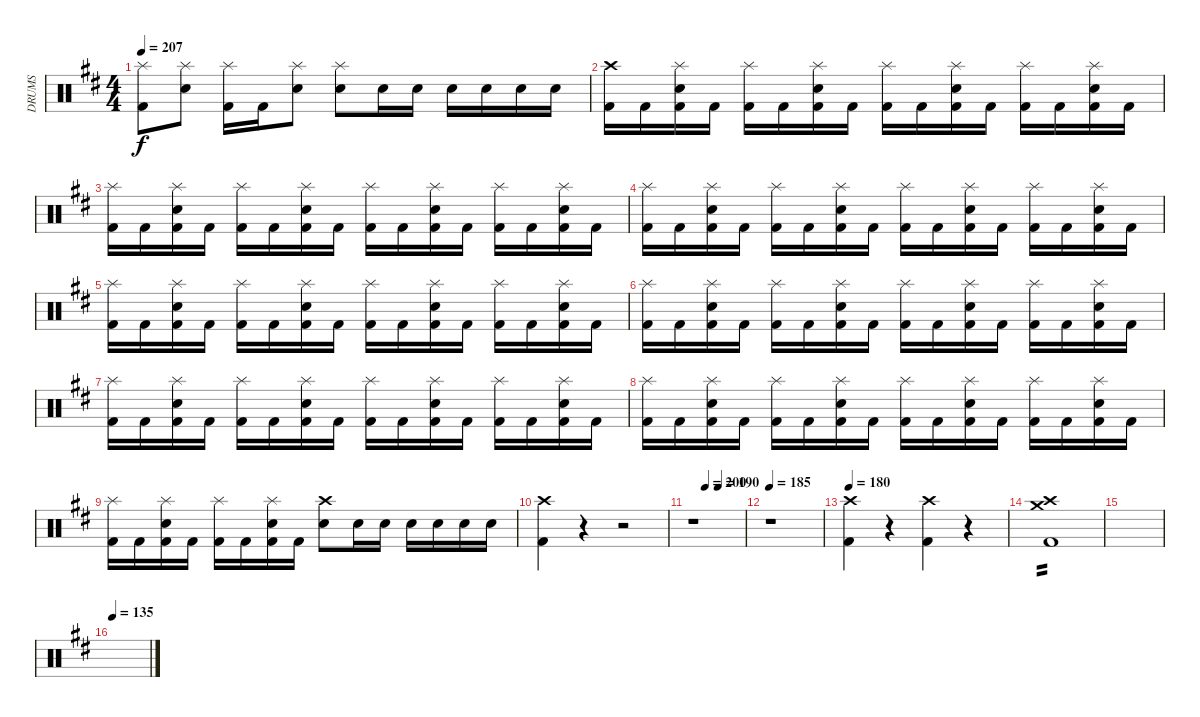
\track ("DRUMS" "DRUMS") {instrument percussion}
\staff {score}
\articulation defaults
\ts (4 4)
\tempo 207
\clef neutral
\ks d
("Splash (hit)" "Kick (hit) 2").8{dy f} ("Splash (hit)" "Snare (hit) 2").8 ("Splash (hit)" "Kick (hit) 2").16 "Kick (hit) 2".16 ("Splash (hit)" "Snare (hit) 2").8 ("Splash (hit)" "Snare (hit) 2").8 "Snare (hit) 2".16 "Snare (hit) 2".16 "Snare (hit) 2".16 "Snare (hit) 2".16 "Snare (hit) 2".16 "Snare (hit) 2".16 |
("Crash high (hit)" "Kick (hit) 2").16 "Kick (hit) 2".16 ("Splash (hit)" "Snare (hit) 2" "Kick (hit) 2").16 "Kick (hit) 2".16 ("Splash (hit)" "Kick (hit) 2").16 "Kick (hit) 2".16 ("Splash (hit)" "Snare (hit) 2" "Kick (hit) 2").16 "Kick (hit) 2".16 ("Splash (hit)" "Kick (hit) 2").16 "Kick (hit) 2".16 ("Splash (hit)" "Snare (hit) 2" "Kick (hit) 2").16 "Kick (hit) 2".16 ("Splash (hit)" "Kick (hit) 2").16 "Kick (hit) 2".16 ("Splash (hit)" "Snare (hit) 2" "Kick (hit) 2").16 "Kick (hit) 2".16 |
("Splash (hit)" "Kick (hit) 2").16 "Kick (hit) 2".16 ("Splash (hit)" "Snare (hit) 2" "Kick (hit) 2").16 "Kick (hit) 2".16 ("Splash (hit)" "Kick (hit) 2").16 "Kick (hit) 2".16 ("Splash (hit)" "Snare (hit) 2" "Kick (hit) 2").16 "Kick (hit) 2".16 ("Splash (hit)" "Kick (hit) 2").16 "Kick (hit) 2".16 ("Splash (hit)" "Snare (hit) 2" "Kick (hit) 2").16 "Kick (hit) 2".16 ("Splash (hit)" "Kick (hit) 2").16 "Kick (hit) 2".16 ("Splash (hit)" "Snare (hit) 2" "Kick (hit) 2").16 "Kick (hit) 2".16 |
("Splash (hit)" "Kick (hit) 2").16 "Kick (hit) 2".16 ("Splash (hit)" "Snare (hit) 2" "Kick (hit) 2").16 "Kick (hit) 2".16 ("Splash (hit)" "Kick (hit) 2").16 "Kick (hit) 2".16 ("Splash (hit)" "Snare (hit) 2" "Kick (hit) 2").16 "Kick (hit) 2".16 ("Splash (hit)" "Kick (hit) 2").16 "Kick (hit) 2".16 ("Splash (hit)" "Snare (hit) 2" "Kick (hit) 2").16 "Kick (hit) 2".16 ("Splash (hit)" "Kick (hit) 2").16 "Kick (hit) 2".16 ("Splash (hit)" "Snare (hit) 2" "Kick (hit) 2").16 "Kick (hit) 2".16 |
("Splash (hit)" "Kick (hit) 2").16 "Kick (hit) 2".16 ("Splash (hit)" "Snare (hit) 2" "Kick (hit) 2").16 "Kick (hit) 2".16 ("Splash (hit)" "Kick (hit) 2").16 "Kick (hit) 2".16 ("Splash (hit)" "Snare (hit) 2" "Kick (hit) 2").16 "Kick (hit) 2".16 ("Splash (hit)" "Kick (hit) 2").16 "Kick (hit) 2".16 ("Splash (hit)" "Snare (hit) 2" "Kick (hit) 2").16 "Kick (hit) 2".16 ("Splash (hit)" "Kick (hit) 2").16 "Kick (hit) 2".16 ("Splash (hit)" "Snare (hit) 2" "Kick (hit) 2").16 "Kick (hit) 2".16 |
("Splash (hit)" "Kick (hit) 2").16 "Kick (hit) 2".16 ("Splash (hit)" "Snare (hit) 2" "Kick (hit) 2").16 "Kick (hit) 2".16 ("Splash (hit)" "Kick (hit) 2").16 "Kick (hit) 2".16 ("Splash (hit)" "Snare (hit) 2" "Kick (hit) 2").16 "Kick (hit) 2".16 ("Splash (hit)" "Kick (hit) 2").16 "Kick (hit) 2".16 ("Splash (hit)" "Snare (hit) 2" "Kick (hit) 2").16 "Kick (hit) 2".16 ("Splash (hit)" "Kick (hit) 2").16 "Kick (hit) 2".16 ("Splash (hit)" "Snare (hit) 2" "Kick (hit) 2").16 "Kick (hit) 2".16 |
("Splash (hit)" "Kick (hit) 2").16 "Kick (hit) 2".16 ("Splash (hit)" "Snare (hit) 2" "Kick (hit) 2").16 "Kick (hit) 2".16 ("Splash (hit)" "Kick (hit) 2").16 "Kick (hit) 2".16 ("Splash (hit)" "Snare (hit) 2" "Kick (hit) 2").16 "Kick (hit) 2".16 ("Splash (hit)" "Kick (hit) 2").16 "Kick (hit) 2".16 ("Splash (hit)" "Snare (hit) 2" "Kick (hit) 2").16 "Kick (hit) 2".16 ("Splash (hit)" "Kick (hit) 2").16 "Kick (hit) 2".16 ("Splash (hit)" "Snare (hit) 2" "Kick (hit) 2").16 "Kick (hit) 2".16 |
("Splash (hit)" "Kick (hit) 2").16 "Kick (hit) 2".16 ("Splash (hit)" "Snare (hit) 2" "Kick (hit) 2").16 "Kick (hit) 2".16 ("Splash (hit)" "Kick (hit) 2").16 "Kick (hit) 2".16 ("Splash (hit)" "Snare (hit) 2" "Kick (hit) 2").16 "Kick (hit) 2".16 ("Splash (hit)" "Kick (hit) 2").16 "Kick (hit) 2".16 ("Splash (hit)" "Snare (hit) 2" "Kick (hit) 2").16 "Kick (hit) 2".16 ("Splash (hit)" "Kick (hit) 2").16 "Kick (hit) 2".16 ("Splash (hit)" "Snare (hit) 2" "Kick (hit) 2").16 "Kick (hit) 2".16 |
("Splash (hit)" "Kick (hit) 2").16 "Kick (hit) 2".16 ("Splash (hit)" "Snare (hit) 2" "Kick (hit) 2").16 "Kick (hit) 2".16 ("Splash (hit)" "Kick (hit) 2").16 "Kick (hit) 2".16 ("Splash (hit)" "Snare (hit) 2" "Kick (hit) 2").16 "Kick (hit) 2".16 ("Crash high (hit)" "Snare (hit) 2").8 "Snare (hit) 2".16 "Snare (hit) 2".16 "Snare (hit) 2".16 "Snare (hit) 2".16 "Snare (hit) 2".16 "Snare (hit) 2".16 |
("Crash high (hit)" "Kick (hit) 2").4 r.4 r.2 |
\tempo (200 0.25)
\tempo (190 0.5)
r.1 |
\tempo 185
r.1 |
\tempo 180
("Crash high (hit)" "Kick (hit) 2").4 r.4 ("Crash high (hit)" "Kick (hit) 2").4 r.4 |
("Crash high (hit)" "Crash medium (hit)" "Kick (hit) 2").1{tp 2} |
|
\tempo 135
